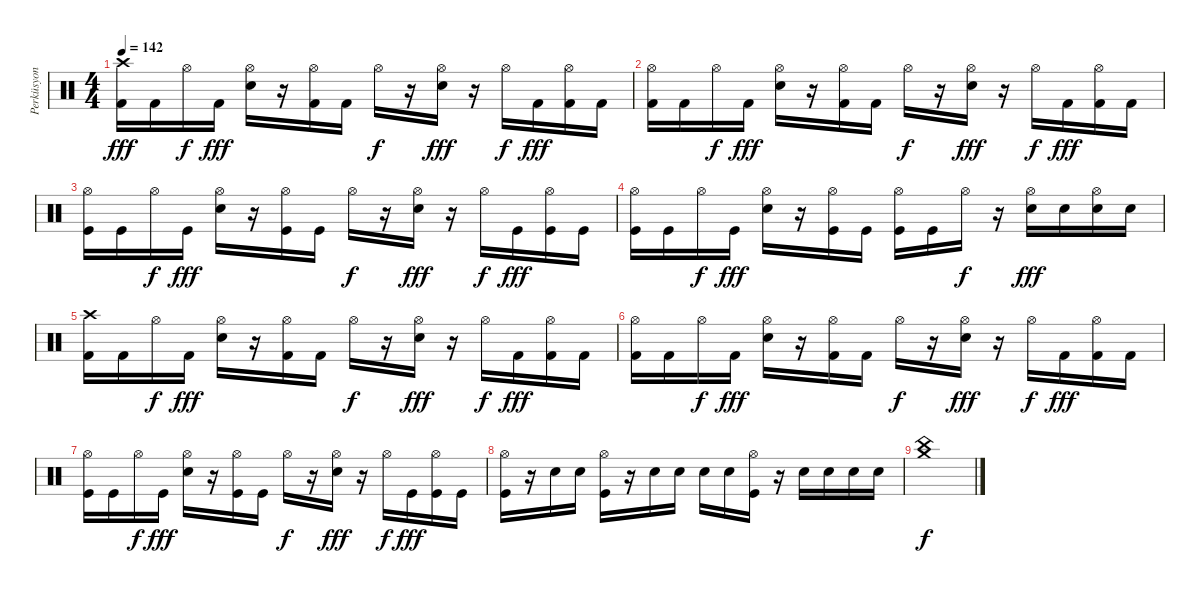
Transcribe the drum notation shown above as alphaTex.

\track ("Perküsyon" "Perküsyon") {instrument percussion}
\staff {score}
\articulation defaults
\ts (4 4)
\tempo 142
\clef neutral
\ks c
("Kick (hit) 2" "Crash high (hit)").16{dy fff} "Kick (hit) 2".16 "Hi-Hat (open)".16{dy f} "Kick (hit) 2".16{dy fff} ("Hi-Hat (open)" "Snare (hit) 2").16 r.16 ("Hi-Hat (open)" "Kick (hit) 2").16 "Kick (hit) 2".16 "Hi-Hat (open)".16{dy f} r.16 ("Hi-Hat (open)" "Snare (hit) 2").16{dy fff} r.16 "Hi-Hat (open)".16{dy f} "Kick (hit) 2".16{dy fff} ("Hi-Hat (open)" "Kick (hit) 2").16 "Kick (hit) 2".16 |
("Hi-Hat (open)" "Kick (hit) 2").16 "Kick (hit) 2".16 "Hi-Hat (open)".16{dy f} "Kick (hit) 2".16{dy fff} ("Hi-Hat (open)" "Snare (hit) 2").16 r.16 ("Hi-Hat (open)" "Kick (hit) 2").16 "Kick (hit) 2".16 "Hi-Hat (open)".16{dy f} r.16 ("Hi-Hat (open)" "Snare (hit) 2").16{dy fff} r.16 "Hi-Hat (open)".16{dy f} "Kick (hit) 2".16{dy fff} ("Hi-Hat (open)" "Kick (hit) 2").16 "Kick (hit) 2".16 |
("Hi-Hat (open)" "Kick (hit)").16 "Kick (hit)".16 "Hi-Hat (open)".16{dy f} "Kick (hit)".16{dy fff} ("Hi-Hat (open)" "Snare (hit) 2").16 r.16 ("Hi-Hat (open)" "Kick (hit)").16 "Kick (hit)".16 "Hi-Hat (open)".16{dy f} r.16 ("Hi-Hat (open)" "Snare (hit) 2").16{dy fff} r.16 "Hi-Hat (open)".16{dy f} "Kick (hit)".16{dy fff} ("Hi-Hat (open)" "Kick (hit)").16 "Kick (hit)".16 |
("Hi-Hat (open)" "Kick (hit)").16 "Kick (hit)".16 "Hi-Hat (open)".16{dy f} "Kick (hit)".16{dy fff} ("Hi-Hat (open)" "Snare (hit) 2").16 r.16 ("Hi-Hat (open)" "Kick (hit)").16 "Kick (hit)".16 ("Hi-Hat (open)" "Kick (hit)").16 "Kick (hit)".16 "Hi-Hat (open)".16{dy f} r.16 ("Hi-Hat (open)" "Snare (hit) 2").16{dy fff} "Snare (hit) 2".16 ("Hi-Hat (open)" "Snare (hit) 2").16 "Snare (hit) 2".16 |
("Kick (hit) 2" "Crash high (hit)").16 "Kick (hit) 2".16 "Hi-Hat (open)".16{dy f} "Kick (hit) 2".16{dy fff} ("Hi-Hat (open)" "Snare (hit) 2").16 r.16 ("Hi-Hat (open)" "Kick (hit) 2").16 "Kick (hit) 2".16 "Hi-Hat (open)".16{dy f} r.16 ("Hi-Hat (open)" "Snare (hit) 2").16{dy fff} r.16 "Hi-Hat (open)".16{dy f} "Kick (hit) 2".16{dy fff} ("Hi-Hat (open)" "Kick (hit) 2").16 "Kick (hit) 2".16 |
("Hi-Hat (open)" "Kick (hit) 2").16 "Kick (hit) 2".16 "Hi-Hat (open)".16{dy f} "Kick (hit) 2".16{dy fff} ("Hi-Hat (open)" "Snare (hit) 2").16 r.16 ("Hi-Hat (open)" "Kick (hit) 2").16 "Kick (hit) 2".16 "Hi-Hat (open)".16{dy f} r.16 ("Hi-Hat (open)" "Snare (hit) 2").16{dy fff} r.16 "Hi-Hat (open)".16{dy f} "Kick (hit) 2".16{dy fff} ("Hi-Hat (open)" "Kick (hit) 2").16 "Kick (hit) 2".16 |
("Hi-Hat (open)" "Kick (hit)").16 "Kick (hit)".16 "Hi-Hat (open)".16{dy f} "Kick (hit)".16{dy fff} ("Hi-Hat (open)" "Snare (hit) 2").16 r.16 ("Hi-Hat (open)" "Kick (hit)").16 "Kick (hit)".16 "Hi-Hat (open)".16{dy f} r.16 ("Hi-Hat (open)" "Snare (hit) 2").16{dy fff} r.16 "Hi-Hat (open)".16{dy f} "Kick (hit)".16{dy fff} ("Hi-Hat (open)" "Kick (hit)").16 "Kick (hit)".16 |
("Hi-Hat (open)" "Kick (hit)").16 r.16 "Snare (hit) 2".16 "Snare (hit) 2".16 ("Hi-Hat (open)" "Kick (hit)").16 r.16 "Snare (hit) 2".16 "Snare (hit) 2".16 "Snare (hit) 2".16 "Snare (hit) 2".16 ("Hi-Hat (open)" "Kick (hit)").16 r.16 "Snare (hit) 2".16 "Snare (hit) 2".16 "Snare (hit) 2".16 "Snare (hit) 2".16 |
("Crash medium (hit)" "China (hit)").1{dy f}
